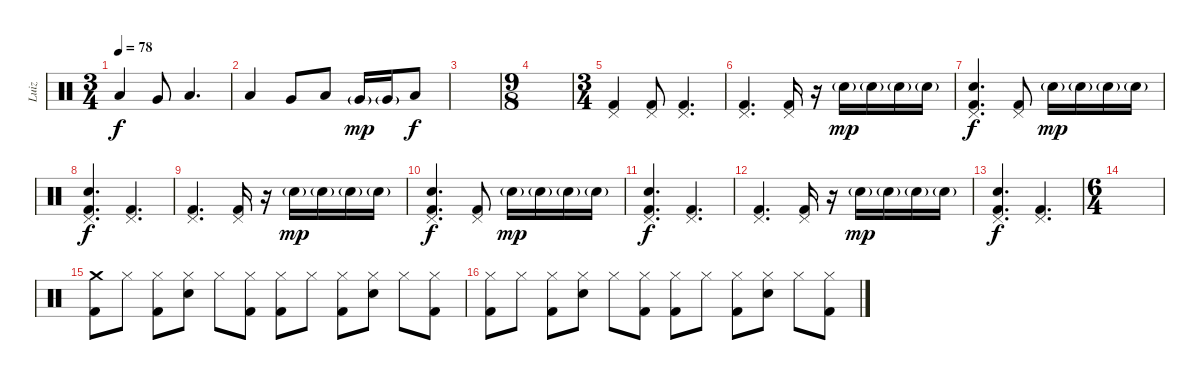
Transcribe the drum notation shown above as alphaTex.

\track ("Luiz" "Luiz") {instrument percussion}
\staff {score}
\articulation defaults
\ts (3 4)
\tempo 78
\clef neutral
\ks c "Low Tom (hit)".4{dy f} "Very Low Tom (hit)".8 "Low Tom (hit)".4{d}
|
"Low Tom (hit)".4 "Very Low Tom (hit)".8 "Low Tom (hit)".8 "Very Low Tom (hit)"{g}.16{dy mp} "Very Low Tom (hit)"{g}.16 "Low Tom (hit)".8{dy f} |
|
\ts (9 8)
|
\ts (3 4)
("Pedal Hi-Hat (hit)" "Kick (hit) 2").4{volume 10} ("Pedal Hi-Hat (hit)" "Kick (hit) 2").8 ("Pedal Hi-Hat (hit)" "Kick (hit) 2").4{d} |
("Pedal Hi-Hat (hit)" "Kick (hit) 2").4{d} ("Pedal Hi-Hat (hit)" "Kick (hit) 2").16 r.16 "Snare (hit) 2"{g}.16{dy mp} "Snare (hit) 2"{g}.16 "Snare (hit) 2"{g}.16 "Snare (hit) 2"{g}.16 |
("Pedal Hi-Hat (hit)" "Snare (hit) 2" "Kick (hit) 2").4{d dy f} ("Pedal Hi-Hat (hit)" "Kick (hit) 2").8 "Snare (hit) 2"{g}.16{dy mp} "Snare (hit) 2"{g}.16 "Snare (hit) 2"{g}.16 "Snare (hit) 2"{g}.16 |
("Pedal Hi-Hat (hit)" "Snare (hit) 2" "Kick (hit) 2").4{d dy f} ("Pedal Hi-Hat (hit)" "Kick (hit) 2").4{d} |
("Pedal Hi-Hat (hit)" "Kick (hit) 2").4{d} ("Pedal Hi-Hat (hit)" "Kick (hit) 2").16 r.16 "Snare (hit) 2"{g}.16{dy mp} "Snare (hit) 2"{g}.16 "Snare (hit) 2"{g}.16 "Snare (hit) 2"{g}.16 |
("Pedal Hi-Hat (hit)" "Snare (hit) 2" "Kick (hit) 2").4{d dy f} ("Pedal Hi-Hat (hit)" "Kick (hit) 2").8 "Snare (hit) 2"{g}.16{dy mp} "Snare (hit) 2"{g}.16 "Snare (hit) 2"{g}.16 "Snare (hit) 2"{g}.16 |
("Pedal Hi-Hat (hit)" "Snare (hit) 2" "Kick (hit) 2").4{d dy f} ("Pedal Hi-Hat (hit)" "Kick (hit) 2").4{d} |
("Pedal Hi-Hat (hit)" "Kick (hit) 2").4{d} ("Pedal Hi-Hat (hit)" "Kick (hit) 2").16 r.16 "Snare (hit) 2"{g}.16{dy mp} "Snare (hit) 2"{g}.16 "Snare (hit) 2"{g}.16 "Snare (hit) 2"{g}.16 |
("Pedal Hi-Hat (hit)" "Snare (hit) 2" "Kick (hit) 2").4{d dy f} ("Pedal Hi-Hat (hit)" "Kick (hit) 2").4{d} |
\ts (6 4)
|
("Crash medium (hit)" "Kick (hit) 2").8{volume 13} "Hi-Hat (closed)".8 ("Hi-Hat (closed)" "Kick (hit) 2").8 ("Hi-Hat (closed)" "Snare (hit) 2").8 "Hi-Hat (closed)".8 ("Hi-Hat (closed)" "Kick (hit) 2").8 ("Hi-Hat (closed)" "Kick (hit) 2").8 "Hi-Hat (closed)".8 ("Hi-Hat (closed)" "Kick (hit) 2").8 ("Hi-Hat (closed)" "Snare (hit) 2").8 "Hi-Hat (closed)".8 ("Hi-Hat (closed)" "Kick (hit) 2").8 |
("Hi-Hat (closed)" "Kick (hit) 2").8 "Hi-Hat (closed)".8 ("Hi-Hat (closed)" "Kick (hit) 2").8 ("Hi-Hat (closed)" "Snare (hit) 2").8 "Hi-Hat (closed)".8 ("Hi-Hat (closed)" "Kick (hit) 2").8 ("Hi-Hat (closed)" "Kick (hit) 2").8 "Hi-Hat (closed)".8 ("Hi-Hat (closed)" "Kick (hit) 2").8 ("Hi-Hat (closed)" "Snare (hit) 2").8 "Hi-Hat (closed)".8 ("Hi-Hat (closed)" "Kick (hit) 2").8
